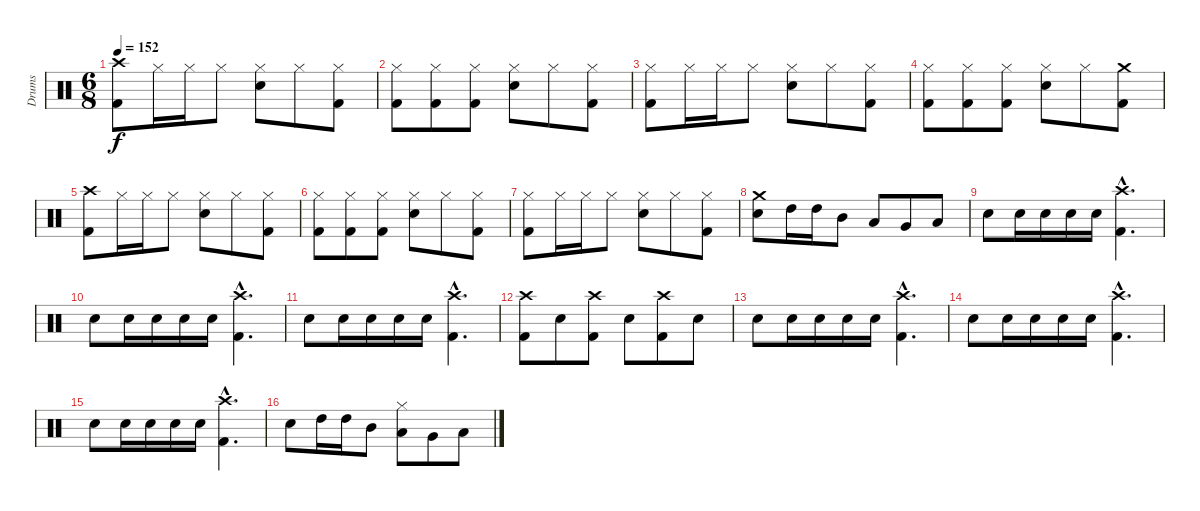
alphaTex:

\track ("Drums" "Drums") {instrument percussion}
\staff {score}
\articulation defaults
\ts (6 8)
\tempo 152
\clef neutral
\ks c
("Crash high (hit)" "Kick (hit) 2").8{dy f} "Hi-Hat (closed)".16 "Hi-Hat (closed)".16 "Hi-Hat (closed)".8 ("Electric Snare (hit)" "Hi-Hat (closed)").8 "Hi-Hat (closed)".8 ("Hi-Hat (closed)" "Kick (hit) 2").8 |
("Hi-Hat (closed)" "Kick (hit) 2").8 ("Hi-Hat (closed)" "Kick (hit) 2").8 ("Hi-Hat (closed)" "Kick (hit) 2").8 ("Electric Snare (hit)" "Hi-Hat (closed)").8 "Hi-Hat (closed)".8 ("Hi-Hat (closed)" "Kick (hit) 2").8 |
("Hi-Hat (closed)" "Kick (hit) 2").8 "Hi-Hat (closed)".16 "Hi-Hat (closed)".16 "Hi-Hat (closed)".8 ("Electric Snare (hit)" "Hi-Hat (closed)").8 "Hi-Hat (closed)".8 ("Hi-Hat (closed)" "Kick (hit) 2").8 |
("Hi-Hat (closed)" "Kick (hit) 2").8 ("Hi-Hat (closed)" "Kick (hit) 2").8 ("Hi-Hat (closed)" "Kick (hit) 2").8 ("Electric Snare (hit)" "Hi-Hat (closed)").8 "Hi-Hat (closed)".8 ("Crash medium (hit)" "Kick (hit) 2").8 |
("Crash high (hit)" "Kick (hit) 2").8 "Hi-Hat (closed)".16 "Hi-Hat (closed)".16 "Hi-Hat (closed)".8 ("Electric Snare (hit)" "Hi-Hat (closed)").8 "Hi-Hat (closed)".8 ("Hi-Hat (closed)" "Kick (hit) 2").8 |
("Hi-Hat (closed)" "Kick (hit) 2").8 ("Hi-Hat (closed)" "Kick (hit) 2").8 ("Hi-Hat (closed)" "Kick (hit) 2").8 ("Electric Snare (hit)" "Hi-Hat (closed)").8 "Hi-Hat (closed)".8 ("Hi-Hat (closed)" "Kick (hit) 2").8 |
("Hi-Hat (closed)" "Kick (hit) 2").8 "Hi-Hat (closed)".16 "Hi-Hat (closed)".16 "Hi-Hat (closed)".8 ("Electric Snare (hit)" "Hi-Hat (closed)").8 "Hi-Hat (closed)".8 ("Hi-Hat (closed)" "Kick (hit) 2").8 |
("Crash medium (hit)" "Electric Snare (hit)").8 "High Tom (hit)".16 "High Tom (hit)".16 "Mid Tom (hit)".8 "Low Tom (hit)".8 "Very Low Tom (hit)".8 "Low Floor Tom (hit)".8 |
"Electric Snare (hit)".8 "Electric Snare (hit)".16 "Electric Snare (hit)".16 "Electric Snare (hit)".16 "Electric Snare (hit)".16 ("Crash high (hit)"{hac} "Kick (hit) 2"{hac}).4{d} |
"Electric Snare (hit)".8 "Electric Snare (hit)".16 "Electric Snare (hit)".16 "Electric Snare (hit)".16 "Electric Snare (hit)".16 ("Crash high (hit)"{hac} "Kick (hit) 2"{hac}).4{d} |
"Electric Snare (hit)".8 "Electric Snare (hit)".16 "Electric Snare (hit)".16 "Electric Snare (hit)".16 "Electric Snare (hit)".16 ("Crash high (hit)"{hac} "Kick (hit) 2"{hac}).4{d} |
("Crash high (hit)" "Kick (hit) 2").8 "Electric Snare (hit)".8 ("Crash high (hit)" "Kick (hit) 2").8 "Electric Snare (hit)".8 ("Crash high (hit)" "Kick (hit) 2").8 "Electric Snare (hit)".8 |
"Electric Snare (hit)".8 "Electric Snare (hit)".16 "Electric Snare (hit)".16 "Electric Snare (hit)".16 "Electric Snare (hit)".16 ("Crash high (hit)"{hac} "Kick (hit) 2"{hac}).4{d} |
"Electric Snare (hit)".8 "Electric Snare (hit)".16 "Electric Snare (hit)".16 "Electric Snare (hit)".16 "Electric Snare (hit)".16 ("Crash high (hit)"{hac} "Kick (hit) 2"{hac}).4{d} |
"Electric Snare (hit)".8 "Electric Snare (hit)".16 "Electric Snare (hit)".16 "Electric Snare (hit)".16 "Electric Snare (hit)".16 ("Crash high (hit)"{hac} "Kick (hit) 2"{hac}).4{d} |
"Electric Snare (hit)".8 "High Tom (hit)".16 "High Tom (hit)".16 "Mid Tom (hit)".8 ("Low Tom (hit)" "Hi-Hat (closed)").8 "Very Low Tom (hit)".8 "Low Floor Tom (hit)".8
